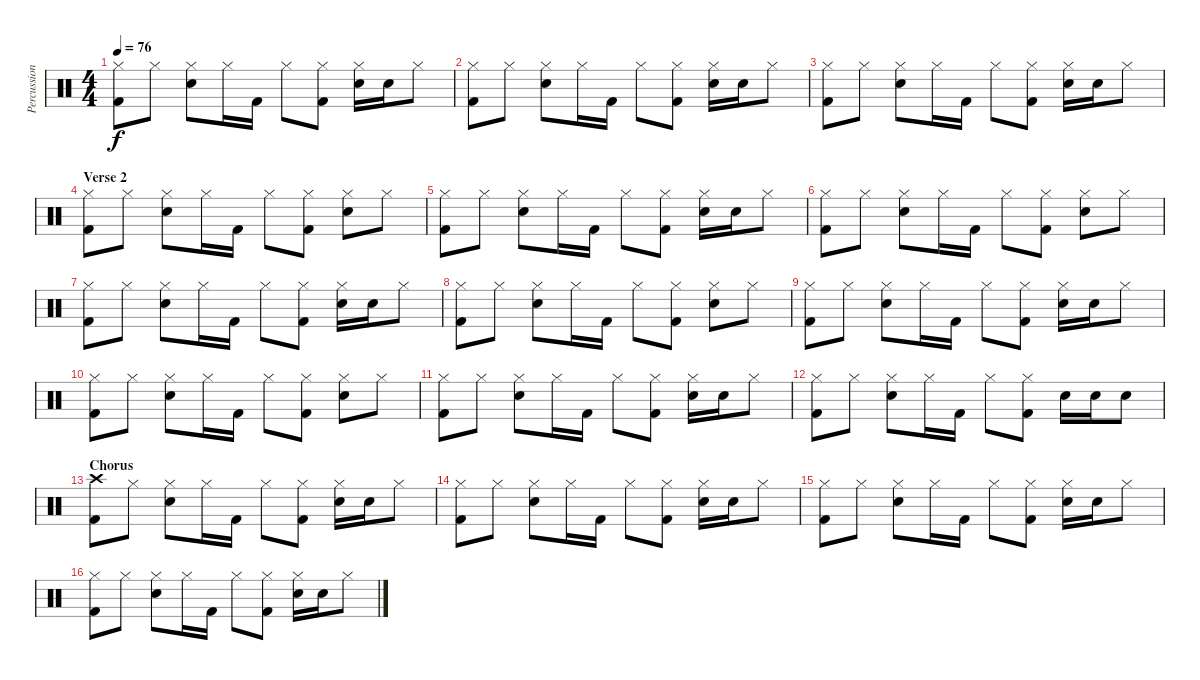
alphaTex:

\track ("Percussion" "Percussion") {instrument percussion}
\staff {score}
\articulation defaults
\ts (4 4)
\tempo 76
\clef neutral
\ks c
("Hi-Hat (closed)" "Kick (hit) 2").8{dy f} "Hi-Hat (closed)".8 ("Hi-Hat (closed)" "Electric Snare (hit)").8 "Hi-Hat (closed)".16 "Kick (hit) 2".16 "Hi-Hat (closed)".8 ("Hi-Hat (closed)" "Kick (hit) 2").8 ("Hi-Hat (closed)" "Electric Snare (hit)").16 "Electric Snare (hit)".16 "Hi-Hat (closed)".8 |
("Hi-Hat (closed)" "Kick (hit) 2").8 "Hi-Hat (closed)".8 ("Hi-Hat (closed)" "Electric Snare (hit)").8 "Hi-Hat (closed)".16 "Kick (hit) 2".16 "Hi-Hat (closed)".8 ("Hi-Hat (closed)" "Kick (hit) 2").8 ("Hi-Hat (closed)" "Electric Snare (hit)").16 "Electric Snare (hit)".16 "Hi-Hat (closed)".8 |
("Hi-Hat (closed)" "Kick (hit) 2").8 "Hi-Hat (closed)".8 ("Hi-Hat (closed)" "Electric Snare (hit)").8 "Hi-Hat (closed)".16 "Kick (hit) 2".16 "Hi-Hat (closed)".8 ("Hi-Hat (closed)" "Kick (hit) 2").8 ("Hi-Hat (closed)" "Electric Snare (hit)").16 "Electric Snare (hit)".16 "Hi-Hat (closed)".8 |
\section ("" "Verse 2")
("Hi-Hat (closed)" "Kick (hit) 2").8 "Hi-Hat (closed)".8 ("Hi-Hat (closed)" "Electric Snare (hit)").8 "Hi-Hat (closed)".16 "Kick (hit) 2".16 "Hi-Hat (closed)".8 ("Hi-Hat (closed)" "Kick (hit) 2").8 ("Hi-Hat (closed)" "Electric Snare (hit)").8 "Hi-Hat (closed)".8 |
("Hi-Hat (closed)" "Kick (hit) 2").8 "Hi-Hat (closed)".8 ("Hi-Hat (closed)" "Electric Snare (hit)").8 "Hi-Hat (closed)".16 "Kick (hit) 2".16 "Hi-Hat (closed)".8 ("Hi-Hat (closed)" "Kick (hit) 2").8 ("Hi-Hat (closed)" "Electric Snare (hit)").16 "Electric Snare (hit)".16 "Hi-Hat (closed)".8 |
("Hi-Hat (closed)" "Kick (hit) 2").8 "Hi-Hat (closed)".8 ("Hi-Hat (closed)" "Electric Snare (hit)").8 "Hi-Hat (closed)".16 "Kick (hit) 2".16 "Hi-Hat (closed)".8 ("Hi-Hat (closed)" "Kick (hit) 2").8 ("Hi-Hat (closed)" "Electric Snare (hit)").8 "Hi-Hat (closed)".8 |
("Hi-Hat (closed)" "Kick (hit) 2").8 "Hi-Hat (closed)".8 ("Hi-Hat (closed)" "Electric Snare (hit)").8 "Hi-Hat (closed)".16 "Kick (hit) 2".16 "Hi-Hat (closed)".8 ("Hi-Hat (closed)" "Kick (hit) 2").8 ("Hi-Hat (closed)" "Electric Snare (hit)").16 "Electric Snare (hit)".16 "Hi-Hat (closed)".8 |
("Hi-Hat (closed)" "Kick (hit) 2").8 "Hi-Hat (closed)".8 ("Hi-Hat (closed)" "Electric Snare (hit)").8 "Hi-Hat (closed)".16 "Kick (hit) 2".16 "Hi-Hat (closed)".8 ("Hi-Hat (closed)" "Kick (hit) 2").8 ("Hi-Hat (closed)" "Electric Snare (hit)").8 "Hi-Hat (closed)".8 |
("Hi-Hat (closed)" "Kick (hit) 2").8 "Hi-Hat (closed)".8 ("Hi-Hat (closed)" "Electric Snare (hit)").8 "Hi-Hat (closed)".16 "Kick (hit) 2".16 "Hi-Hat (closed)".8 ("Hi-Hat (closed)" "Kick (hit) 2").8 ("Hi-Hat (closed)" "Electric Snare (hit)").16 "Electric Snare (hit)".16 "Hi-Hat (closed)".8 |
("Hi-Hat (closed)" "Kick (hit) 2").8 "Hi-Hat (closed)".8 ("Hi-Hat (closed)" "Electric Snare (hit)").8 "Hi-Hat (closed)".16 "Kick (hit) 2".16 "Hi-Hat (closed)".8 ("Hi-Hat (closed)" "Kick (hit) 2").8 ("Hi-Hat (closed)" "Electric Snare (hit)").8 "Hi-Hat (closed)".8 |
("Hi-Hat (closed)" "Kick (hit) 2").8 "Hi-Hat (closed)".8 ("Hi-Hat (closed)" "Electric Snare (hit)").8 "Hi-Hat (closed)".16 "Kick (hit) 2".16 "Hi-Hat (closed)".8 ("Hi-Hat (closed)" "Kick (hit) 2").8 ("Hi-Hat (closed)" "Electric Snare (hit)").16 "Electric Snare (hit)".16 "Hi-Hat (closed)".8 |
("Hi-Hat (closed)" "Kick (hit) 2").8 "Hi-Hat (closed)".8 ("Hi-Hat (closed)" "Electric Snare (hit)").8 "Hi-Hat (closed)".16 "Kick (hit) 2".16 "Hi-Hat (closed)".8 ("Hi-Hat (closed)" "Kick (hit) 2").8 "Electric Snare (hit)".16 "Electric Snare (hit)".16 "Electric Snare (hit)".8 |
\section ("" "Chorus")
("Crash high (hit)" "Kick (hit) 2").8 "Hi-Hat (closed)".8 ("Hi-Hat (closed)" "Electric Snare (hit)").8 "Hi-Hat (closed)".16 "Kick (hit) 2".16 "Hi-Hat (closed)".8 ("Hi-Hat (closed)" "Kick (hit) 2").8 ("Hi-Hat (closed)" "Electric Snare (hit)").16 "Electric Snare (hit)".16 "Hi-Hat (closed)".8 |
("Hi-Hat (closed)" "Kick (hit) 2").8 "Hi-Hat (closed)".8 ("Hi-Hat (closed)" "Electric Snare (hit)").8 "Hi-Hat (closed)".16 "Kick (hit) 2".16 "Hi-Hat (closed)".8 ("Hi-Hat (closed)" "Kick (hit) 2").8 ("Hi-Hat (closed)" "Electric Snare (hit)").16 "Electric Snare (hit)".16 "Hi-Hat (closed)".8 |
("Hi-Hat (closed)" "Kick (hit) 2").8 "Hi-Hat (closed)".8 ("Hi-Hat (closed)" "Electric Snare (hit)").8 "Hi-Hat (closed)".16 "Kick (hit) 2".16 "Hi-Hat (closed)".8 ("Hi-Hat (closed)" "Kick (hit) 2").8 ("Hi-Hat (closed)" "Electric Snare (hit)").16 "Electric Snare (hit)".16 "Hi-Hat (closed)".8 |
("Hi-Hat (closed)" "Kick (hit) 2").8 "Hi-Hat (closed)".8 ("Hi-Hat (closed)" "Electric Snare (hit)").8 "Hi-Hat (closed)".16 "Kick (hit) 2".16 "Hi-Hat (closed)".8 ("Hi-Hat (closed)" "Kick (hit) 2").8 ("Hi-Hat (closed)" "Electric Snare (hit)").16 "Electric Snare (hit)".16 "Hi-Hat (closed)".8
